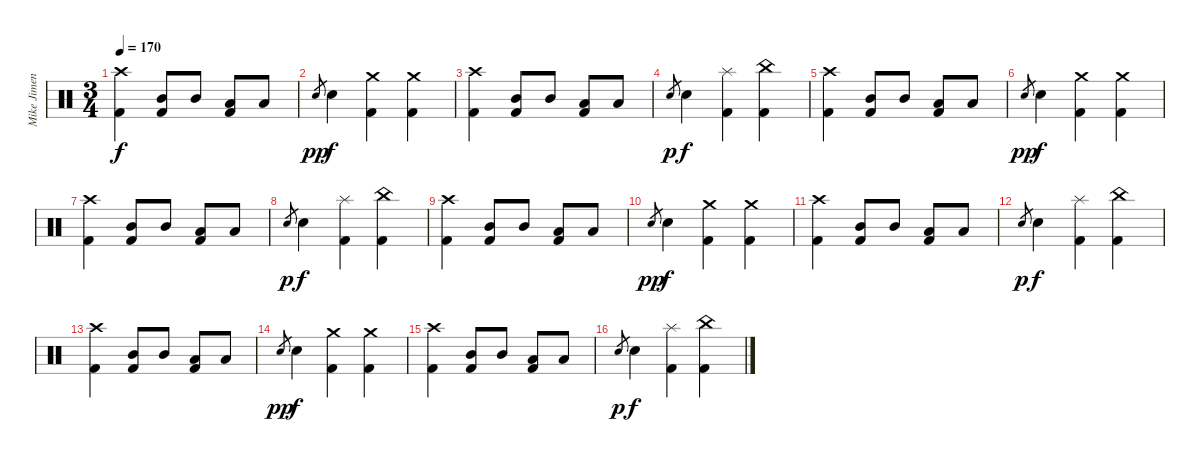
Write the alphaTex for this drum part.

\track ("Mike Jimenez" "Mike Jimen") {instrument percussion}
\staff {score}
\articulation defaults
\ts (3 4)
\tempo 170
\clef neutral
\ks c
("Crash high (hit)" "Kick (hit) 2").4{dy f} ("Mid Tom (hit)" "Kick (hit) 2").8 "Mid Tom (hit)".8 ("Low Tom (hit)" "Kick (hit) 2").8 "Low Tom (hit)".8 |
"Electric Snare (hit)".8{gr dy pp} "Electric Snare (hit)".4{dy f} ("Crash medium (hit)" "Kick (hit) 2").4 ("Crash medium (hit)" "Kick (hit) 2").4 |
("Crash high (hit)" "Kick (hit) 2").4 ("Mid Tom (hit)" "Kick (hit) 2").8 "Mid Tom (hit)".8 ("Low Tom (hit)" "Kick (hit) 2").8 "Low Tom (hit)".8 |
"Electric Snare (hit)".8{gr dy p} "Electric Snare (hit)".4{dy f} ("Splash (hit)" "Kick (hit) 2").4 ("China (hit)" "Kick (hit) 2").4 |
("Crash high (hit)" "Kick (hit) 2").4 ("Mid Tom (hit)" "Kick (hit) 2").8 "Mid Tom (hit)".8 ("Low Tom (hit)" "Kick (hit) 2").8 "Low Tom (hit)".8 |
"Electric Snare (hit)".8{gr dy pp} "Electric Snare (hit)".4{dy f} ("Crash medium (hit)" "Kick (hit) 2").4 ("Crash medium (hit)" "Kick (hit) 2").4 |
("Crash high (hit)" "Kick (hit) 2").4 ("Mid Tom (hit)" "Kick (hit) 2").8 "Mid Tom (hit)".8 ("Low Tom (hit)" "Kick (hit) 2").8 "Low Tom (hit)".8 |
"Electric Snare (hit)".8{gr dy p} "Electric Snare (hit)".4{dy f} ("Splash (hit)" "Kick (hit) 2").4 ("China (hit)" "Kick (hit) 2").4 |
("Crash high (hit)" "Kick (hit) 2").4 ("Mid Tom (hit)" "Kick (hit) 2").8 "Mid Tom (hit)".8 ("Low Tom (hit)" "Kick (hit) 2").8 "Low Tom (hit)".8 |
"Electric Snare (hit)".8{gr dy pp} "Electric Snare (hit)".4{dy f} ("Crash medium (hit)" "Kick (hit) 2").4 ("Crash medium (hit)" "Kick (hit) 2").4 |
("Crash high (hit)" "Kick (hit) 2").4 ("Mid Tom (hit)" "Kick (hit) 2").8 "Mid Tom (hit)".8 ("Low Tom (hit)" "Kick (hit) 2").8 "Low Tom (hit)".8 |
"Electric Snare (hit)".8{gr dy p} "Electric Snare (hit)".4{dy f} ("Splash (hit)" "Kick (hit) 2").4 ("China (hit)" "Kick (hit) 2").4 |
("Crash high (hit)" "Kick (hit) 2").4 ("Mid Tom (hit)" "Kick (hit) 2").8 "Mid Tom (hit)".8 ("Low Tom (hit)" "Kick (hit) 2").8 "Low Tom (hit)".8 |
"Electric Snare (hit)".8{gr dy pp} "Electric Snare (hit)".4{dy f} ("Crash medium (hit)" "Kick (hit) 2").4 ("Crash medium (hit)" "Kick (hit) 2").4 |
("Crash high (hit)" "Kick (hit) 2").4 ("Mid Tom (hit)" "Kick (hit) 2").8 "Mid Tom (hit)".8 ("Low Tom (hit)" "Kick (hit) 2").8 "Low Tom (hit)".8 |
"Electric Snare (hit)".8{gr dy p} "Electric Snare (hit)".4{dy f} ("Splash (hit)" "Kick (hit) 2").4 ("China (hit)" "Kick (hit) 2").4
